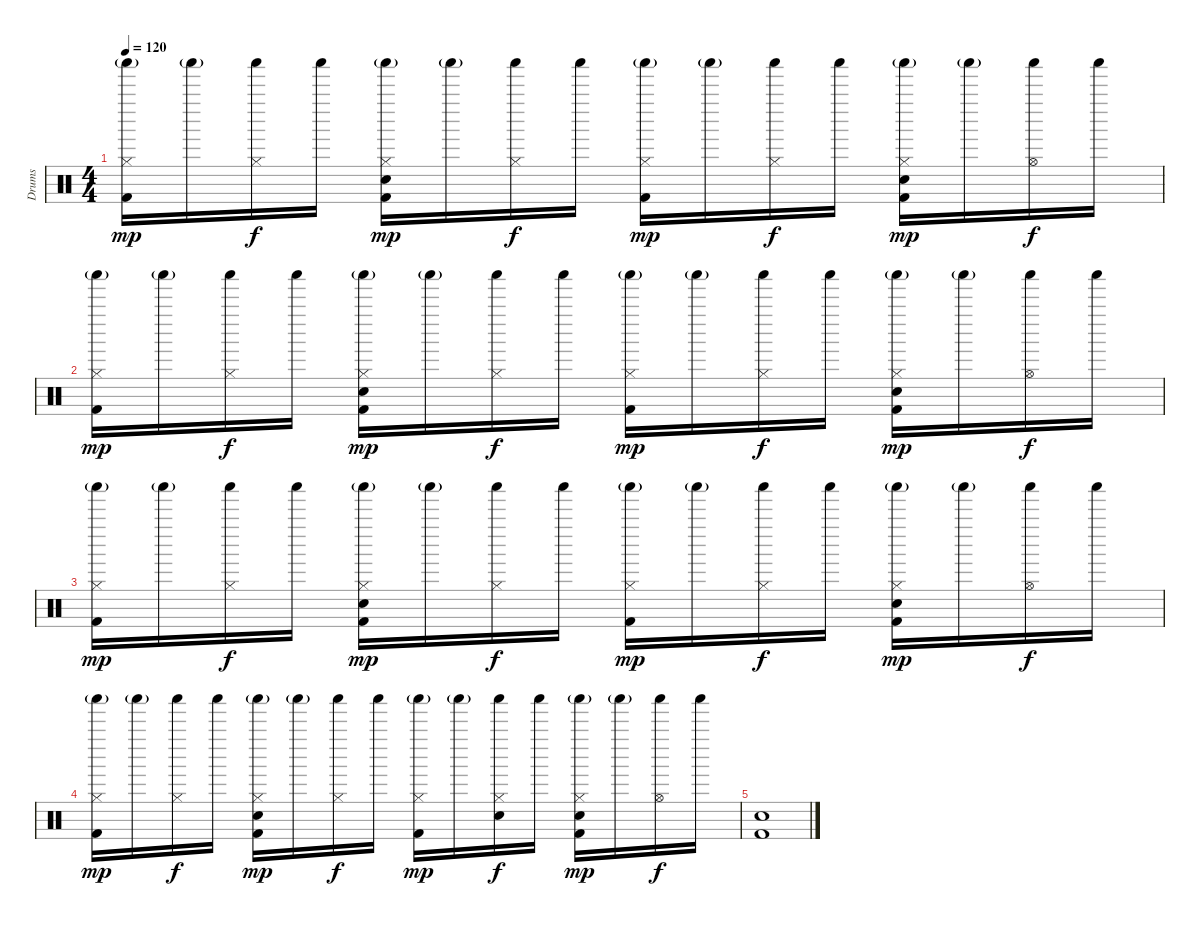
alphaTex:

\track ("Drums" "Drums") {instrument percussion}
\staff {score}
\articulation defaults
\ts (4 4)
\tempo 120
\clef neutral
\ks c
("Hi-Hat (closed)" "Shaker (hit)"{g} "Kick (hit) 2").16{dy mp} "Shaker (hit)"{g}.16 ("Hi-Hat (closed)" "Shaker (hit)").16{dy f} "Shaker (hit)".16 ("Hi-Hat (closed)" "Shaker (hit)"{g} "Electric Snare (hit)" "Kick (hit) 2").16{dy mp} "Shaker (hit)"{g}.16 ("Hi-Hat (closed)" "Shaker (hit)").16{dy f} "Shaker (hit)".16 ("Hi-Hat (closed)" "Shaker (hit)"{g} "Kick (hit) 2").16{dy mp} "Shaker (hit)"{g}.16 ("Hi-Hat (closed)" "Shaker (hit)").16{dy f} "Shaker (hit)".16 ("Hi-Hat (closed)" "Shaker (hit)"{g} "Electric Snare (hit)" "Kick (hit) 2").16{dy mp} "Shaker (hit)"{g}.16 ("Hi-Hat (open)" "Shaker (hit)").16{dy f} "Shaker (hit)".16 |
("Hi-Hat (closed)" "Shaker (hit)"{g} "Kick (hit) 2").16{dy mp} "Shaker (hit)"{g}.16 ("Hi-Hat (closed)" "Shaker (hit)").16{dy f} "Shaker (hit)".16 ("Hi-Hat (closed)" "Shaker (hit)"{g} "Electric Snare (hit)" "Kick (hit) 2").16{dy mp} "Shaker (hit)"{g}.16 ("Hi-Hat (closed)" "Shaker (hit)").16{dy f} "Shaker (hit)".16 ("Hi-Hat (closed)" "Shaker (hit)"{g} "Kick (hit) 2").16{dy mp} "Shaker (hit)"{g}.16 ("Hi-Hat (closed)" "Shaker (hit)").16{dy f} "Shaker (hit)".16 ("Hi-Hat (closed)" "Shaker (hit)"{g} "Electric Snare (hit)" "Kick (hit) 2").16{dy mp} "Shaker (hit)"{g}.16 ("Hi-Hat (open)" "Shaker (hit)").16{dy f} "Shaker (hit)".16 |
("Hi-Hat (closed)" "Shaker (hit)"{g} "Kick (hit) 2").16{dy mp} "Shaker (hit)"{g}.16 ("Hi-Hat (closed)" "Shaker (hit)").16{dy f} "Shaker (hit)".16 ("Hi-Hat (closed)" "Shaker (hit)"{g} "Electric Snare (hit)" "Kick (hit) 2").16{dy mp} "Shaker (hit)"{g}.16 ("Hi-Hat (closed)" "Shaker (hit)").16{dy f} "Shaker (hit)".16 ("Hi-Hat (closed)" "Shaker (hit)"{g} "Kick (hit) 2").16{dy mp} "Shaker (hit)"{g}.16 ("Hi-Hat (closed)" "Shaker (hit)").16{dy f} "Shaker (hit)".16 ("Hi-Hat (closed)" "Shaker (hit)"{g} "Electric Snare (hit)" "Kick (hit) 2").16{dy mp} "Shaker (hit)"{g}.16 ("Hi-Hat (open)" "Shaker (hit)").16{dy f} "Shaker (hit)".16 |
("Hi-Hat (closed)" "Shaker (hit)"{g} "Kick (hit) 2").16{dy mp} "Shaker (hit)"{g}.16 ("Hi-Hat (closed)" "Shaker (hit)").16{dy f} "Shaker (hit)".16 ("Hi-Hat (closed)" "Shaker (hit)"{g} "Electric Snare (hit)" "Kick (hit) 2").16{dy mp} "Shaker (hit)"{g}.16 ("Hi-Hat (closed)" "Shaker (hit)").16{dy f} "Shaker (hit)".16 ("Hi-Hat (closed)" "Shaker (hit)"{g} "Kick (hit) 2").16{dy mp} "Shaker (hit)"{g}.16 ("Hi-Hat (closed)" "Shaker (hit)" "Electric Snare (hit)").16{dy f} "Shaker (hit)".16 ("Hi-Hat (closed)" "Shaker (hit)"{g} "Electric Snare (hit)" "Kick (hit) 2").16{dy mp} "Shaker (hit)"{g}.16 ("Hi-Hat (open)" "Shaker (hit)").16{dy f} "Shaker (hit)".16 |
("Electric Snare (hit)" "Kick (hit) 2").1
